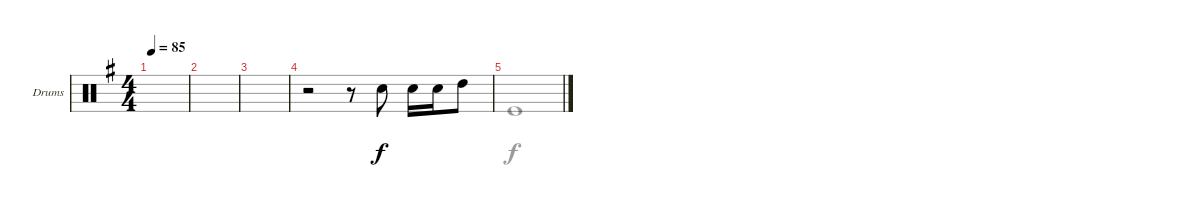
\defaultSystemsLayout 4
\bracketExtendMode groupsimilarinstruments
\firstSystemTrackNameOrientation horizontal
\otherSystemsTrackNameOrientation horizontal
\track ("Drumkit" "Drums") {instrument percussion}
\staff {score}
\articulation defaults
\voice
\ts (4 4)
\scale
0.51216
\tempo 85
\accidentals auto
\clef neutral
\ottava regular
\simile none
\ks eminor
|
\scale
0.487847 |
\scale
0.507557 |
\scale
0.492877 r.2 r.8 "Snare (hit) 2".8 "Snare (hit) 2".16 "Snare (hit) 2".16 "High Tom (hit)".8 |
\voice
\clef neutral
\ottava regular
\simile none
\ks eminor
|
|
|
|
"Kick (hit)".1
